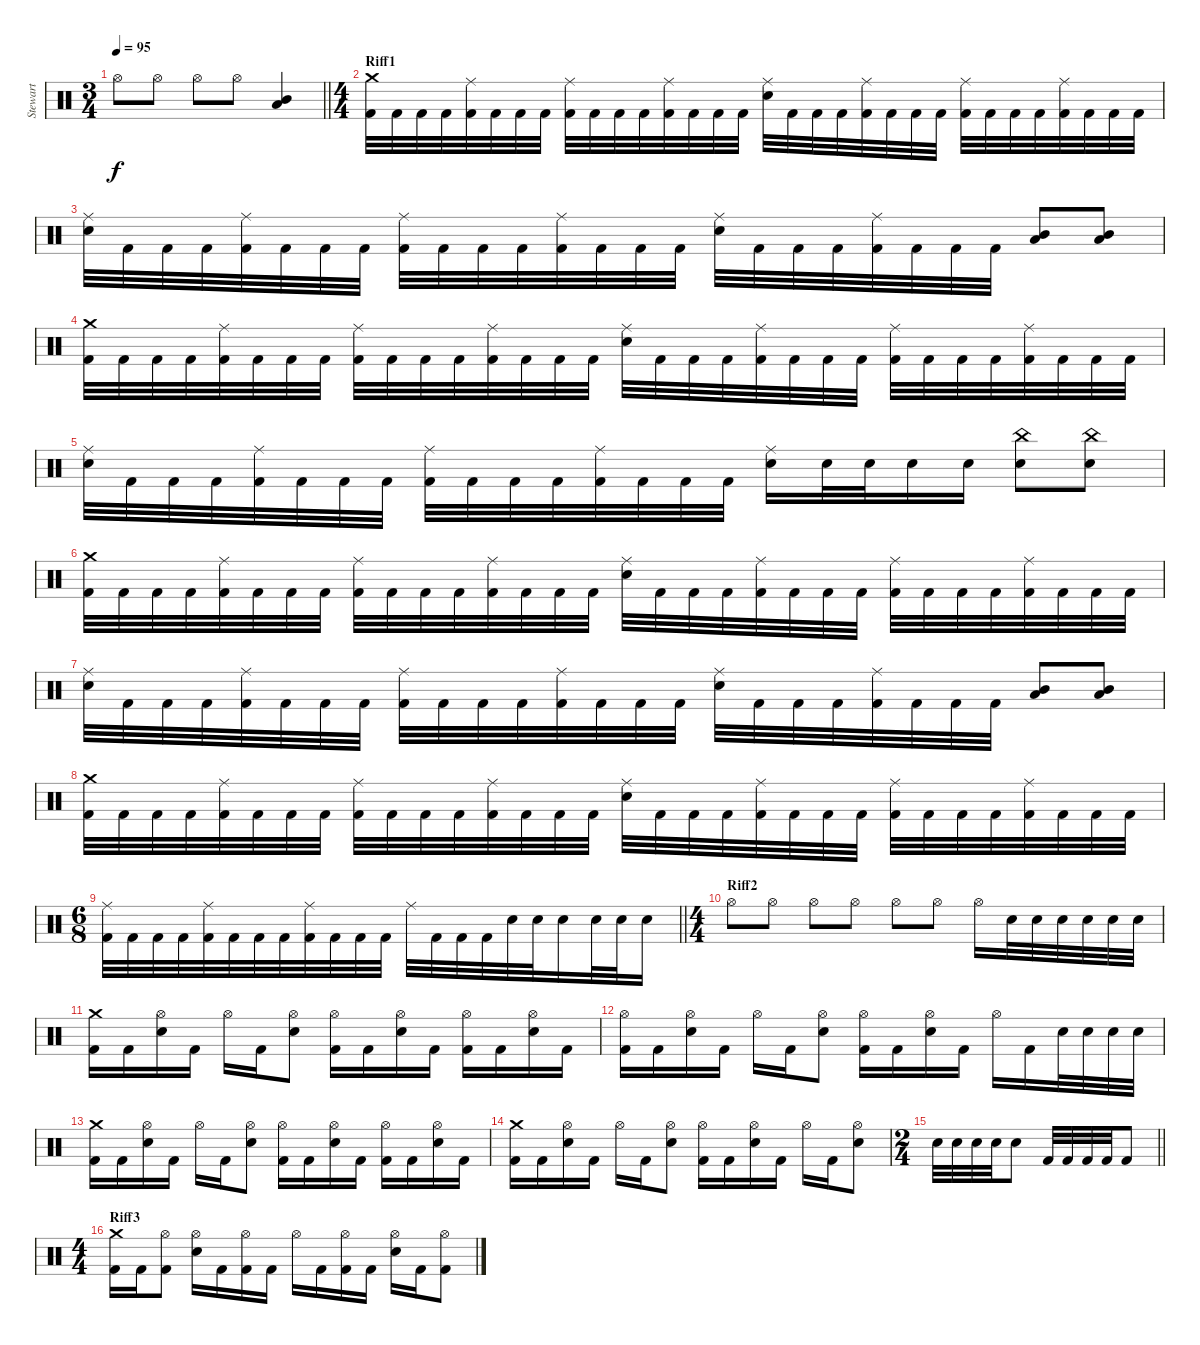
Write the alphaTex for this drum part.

\track ("Stewart" "Stewart") {instrument percussion}
\staff {score}
\articulation defaults
\ts (3 4)
\tempo 95
\clef neutral
\barLineRight lightlight
\ks c "Hi-Hat (open)".8{dy f} "Hi-Hat (open)".8 "Hi-Hat (open)".8 "Hi-Hat (open)".8
("Mid Tom (hit)" "Low Tom (hit)").4 |
\ts (4 4)
\section ("" "Riff1")
("Crash medium (hit)" "Kick (hit) 2").32 "Kick (hit) 2".32 "Kick (hit) 2".32 "Kick (hit) 2".32 ("Ride (middle)" "Kick (hit) 2").32 "Kick (hit) 2".32 "Kick (hit) 2".32 "Kick (hit) 2".32 ("Ride (middle)" "Kick (hit) 2").32 "Kick (hit) 2".32 "Kick (hit) 2".32 "Kick (hit) 2".32 ("Ride (middle)" "Kick (hit) 2").32 "Kick (hit) 2".32 "Kick (hit) 2".32 "Kick (hit) 2".32 ("Ride (middle)" "Electric Snare (hit)").32 "Kick (hit) 2".32 "Kick (hit) 2".32 "Kick (hit) 2".32 ("Ride (middle)" "Kick (hit) 2").32 "Kick (hit) 2".32 "Kick (hit) 2".32 "Kick (hit) 2".32 ("Ride (middle)" "Kick (hit) 2").32 "Kick (hit) 2".32 "Kick (hit) 2".32 "Kick (hit) 2".32 ("Ride (middle)" "Kick (hit) 2").32 "Kick (hit) 2".32 "Kick (hit) 2".32 "Kick (hit) 2".32 |
("Ride (middle)" "Electric Snare (hit)").32 "Kick (hit) 2".32 "Kick (hit) 2".32 "Kick (hit) 2".32 ("Ride (middle)" "Kick (hit) 2").32 "Kick (hit) 2".32 "Kick (hit) 2".32 "Kick (hit) 2".32 ("Ride (middle)" "Kick (hit) 2").32 "Kick (hit) 2".32 "Kick (hit) 2".32 "Kick (hit) 2".32 ("Ride (middle)" "Kick (hit) 2").32 "Kick (hit) 2".32 "Kick (hit) 2".32 "Kick (hit) 2".32 ("Ride (middle)" "Electric Snare (hit)").32 "Kick (hit) 2".32 "Kick (hit) 2".32 "Kick (hit) 2".32 ("Ride (middle)" "Kick (hit) 2").32 "Kick (hit) 2".32 "Kick (hit) 2".32 "Kick (hit) 2".32 ("Mid Tom (hit)" "Low Tom (hit)").8 ("Mid Tom (hit)" "Low Tom (hit)").8 |
("Crash medium (hit)" "Kick (hit) 2").32 "Kick (hit) 2".32 "Kick (hit) 2".32 "Kick (hit) 2".32 ("Ride (middle)" "Kick (hit) 2").32 "Kick (hit) 2".32 "Kick (hit) 2".32 "Kick (hit) 2".32 ("Ride (middle)" "Kick (hit) 2").32 "Kick (hit) 2".32 "Kick (hit) 2".32 "Kick (hit) 2".32 ("Ride (middle)" "Kick (hit) 2").32 "Kick (hit) 2".32 "Kick (hit) 2".32 "Kick (hit) 2".32 ("Ride (middle)" "Electric Snare (hit)").32 "Kick (hit) 2".32 "Kick (hit) 2".32 "Kick (hit) 2".32 ("Ride (middle)" "Kick (hit) 2").32 "Kick (hit) 2".32 "Kick (hit) 2".32 "Kick (hit) 2".32 ("Ride (middle)" "Kick (hit) 2").32 "Kick (hit) 2".32 "Kick (hit) 2".32 "Kick (hit) 2".32 ("Ride (middle)" "Kick (hit) 2").32 "Kick (hit) 2".32 "Kick (hit) 2".32 "Kick (hit) 2".32 |
("Ride (middle)" "Electric Snare (hit)").32 "Kick (hit) 2".32 "Kick (hit) 2".32 "Kick (hit) 2".32 ("Ride (middle)" "Kick (hit) 2").32 "Kick (hit) 2".32 "Kick (hit) 2".32 "Kick (hit) 2".32 ("Ride (middle)" "Kick (hit) 2").32 "Kick (hit) 2".32 "Kick (hit) 2".32 "Kick (hit) 2".32 ("Ride (middle)" "Kick (hit) 2").32 "Kick (hit) 2".32 "Kick (hit) 2".32 "Kick (hit) 2".32 ("Ride (middle)" "Electric Snare (hit)").16 "Electric Snare (hit)".32 "Electric Snare (hit)".32 "Electric Snare (hit)".16 "Electric Snare (hit)".16 ("China (hit)" "Electric Snare (hit)").8 ("China (hit)" "Electric Snare (hit)").8 |
("Crash medium (hit)" "Kick (hit) 2").32 "Kick (hit) 2".32 "Kick (hit) 2".32 "Kick (hit) 2".32 ("Ride (middle)" "Kick (hit) 2").32 "Kick (hit) 2".32 "Kick (hit) 2".32 "Kick (hit) 2".32 ("Ride (middle)" "Kick (hit) 2").32 "Kick (hit) 2".32 "Kick (hit) 2".32 "Kick (hit) 2".32 ("Ride (middle)" "Kick (hit) 2").32 "Kick (hit) 2".32 "Kick (hit) 2".32 "Kick (hit) 2".32 ("Ride (middle)" "Electric Snare (hit)").32 "Kick (hit) 2".32 "Kick (hit) 2".32 "Kick (hit) 2".32 ("Ride (middle)" "Kick (hit) 2").32 "Kick (hit) 2".32 "Kick (hit) 2".32 "Kick (hit) 2".32 ("Ride (middle)" "Kick (hit) 2").32 "Kick (hit) 2".32 "Kick (hit) 2".32 "Kick (hit) 2".32 ("Ride (middle)" "Kick (hit) 2").32 "Kick (hit) 2".32 "Kick (hit) 2".32 "Kick (hit) 2".32 |
("Ride (middle)" "Electric Snare (hit)").32 "Kick (hit) 2".32 "Kick (hit) 2".32 "Kick (hit) 2".32 ("Ride (middle)" "Kick (hit) 2").32 "Kick (hit) 2".32 "Kick (hit) 2".32 "Kick (hit) 2".32 ("Ride (middle)" "Kick (hit) 2").32 "Kick (hit) 2".32 "Kick (hit) 2".32 "Kick (hit) 2".32 ("Ride (middle)" "Kick (hit) 2").32 "Kick (hit) 2".32 "Kick (hit) 2".32 "Kick (hit) 2".32 ("Ride (middle)" "Electric Snare (hit)").32 "Kick (hit) 2".32 "Kick (hit) 2".32 "Kick (hit) 2".32 ("Ride (middle)" "Kick (hit) 2").32 "Kick (hit) 2".32 "Kick (hit) 2".32 "Kick (hit) 2".32 ("Mid Tom (hit)" "Low Tom (hit)").8 ("Mid Tom (hit)" "Low Tom (hit)").8 |
("Crash medium (hit)" "Kick (hit) 2").32 "Kick (hit) 2".32 "Kick (hit) 2".32 "Kick (hit) 2".32 ("Ride (middle)" "Kick (hit) 2").32 "Kick (hit) 2".32 "Kick (hit) 2".32 "Kick (hit) 2".32 ("Ride (middle)" "Kick (hit) 2").32 "Kick (hit) 2".32 "Kick (hit) 2".32 "Kick (hit) 2".32 ("Ride (middle)" "Kick (hit) 2").32 "Kick (hit) 2".32 "Kick (hit) 2".32 "Kick (hit) 2".32 ("Ride (middle)" "Electric Snare (hit)").32 "Kick (hit) 2".32 "Kick (hit) 2".32 "Kick (hit) 2".32 ("Ride (middle)" "Kick (hit) 2").32 "Kick (hit) 2".32 "Kick (hit) 2".32 "Kick (hit) 2".32 ("Ride (middle)" "Kick (hit) 2").32 "Kick (hit) 2".32 "Kick (hit) 2".32 "Kick (hit) 2".32 ("Ride (middle)" "Kick (hit) 2").32 "Kick (hit) 2".32 "Kick (hit) 2".32 "Kick (hit) 2".32 |
\ts (6 8)
\barLineRight lightlight
("Ride (middle)" "Kick (hit) 2").32 "Kick (hit) 2".32 "Kick (hit) 2".32 "Kick (hit) 2".32 ("Ride (middle)" "Kick (hit) 2").32 "Kick (hit) 2".32 "Kick (hit) 2".32 "Kick (hit) 2".32 ("Ride (middle)" "Kick (hit) 2").32 "Kick (hit) 2".32 "Kick (hit) 2".32 "Kick (hit) 2".32 "Ride (middle)".32 "Kick (hit) 2".32 "Kick (hit) 2".32 "Kick (hit) 2".32 "Electric Snare (hit)".32 "Electric Snare (hit)".32 "Electric Snare (hit)".16 "Electric Snare (hit)".32 "Electric Snare (hit)".32 "Electric Snare (hit)".16 |
\ts (4 4)
\section ("" "Riff2")
"Hi-Hat (open)".8 "Hi-Hat (open)".8 "Hi-Hat (open)".8 "Hi-Hat (open)".8 "Hi-Hat (open)".8 "Hi-Hat (open)".8 "Hi-Hat (open)".16 "Electric Snare (hit)".32 "Electric Snare (hit)".32 "Electric Snare (hit)".32 "Electric Snare (hit)".32 "Electric Snare (hit)".32 "Electric Snare (hit)".32 |
("Crash medium (hit)" "Kick (hit) 2").16 "Kick (hit) 2".16 ("Hi-Hat (open)" "Electric Snare (hit)").16 "Kick (hit) 2".16 "Hi-Hat (open)".16 "Kick (hit) 2".16 ("Hi-Hat (open)" "Electric Snare (hit)").8 ("Hi-Hat (open)" "Kick (hit) 2").16 "Kick (hit) 2".16 ("Hi-Hat (open)" "Electric Snare (hit)").16 "Kick (hit) 2".16 ("Hi-Hat (open)" "Kick (hit) 2").16 "Kick (hit) 2".16 ("Hi-Hat (open)" "Electric Snare (hit)").16 "Kick (hit) 2".16 |
("Hi-Hat (open)" "Kick (hit) 2").16 "Kick (hit) 2".16 ("Hi-Hat (open)" "Electric Snare (hit)").16 "Kick (hit) 2".16 "Hi-Hat (open)".16 "Kick (hit) 2".16 ("Hi-Hat (open)" "Electric Snare (hit)").8 ("Hi-Hat (open)" "Kick (hit) 2").16 "Kick (hit) 2".16 ("Hi-Hat (open)" "Electric Snare (hit)").16 "Kick (hit) 2".16 "Hi-Hat (open)".16 "Kick (hit) 2".16 "Electric Snare (hit)".32 "Electric Snare (hit)".32 "Electric Snare (hit)".32 "Electric Snare (hit)".32 |
("Crash medium (hit)" "Kick (hit) 2").16 "Kick (hit) 2".16 ("Hi-Hat (open)" "Electric Snare (hit)").16 "Kick (hit) 2".16 "Hi-Hat (open)".16 "Kick (hit) 2".16 ("Hi-Hat (open)" "Electric Snare (hit)").8 ("Hi-Hat (open)" "Kick (hit) 2").16 "Kick (hit) 2".16 ("Hi-Hat (open)" "Electric Snare (hit)").16 "Kick (hit) 2".16 ("Hi-Hat (open)" "Kick (hit) 2").16 "Kick (hit) 2".16 ("Hi-Hat (open)" "Electric Snare (hit)").16 "Kick (hit) 2".16 |
("Crash medium (hit)" "Kick (hit) 2").16 "Kick (hit) 2".16 ("Hi-Hat (open)" "Electric Snare (hit)").16 "Kick (hit) 2".16 "Hi-Hat (open)".16 "Kick (hit) 2".16 ("Hi-Hat (open)" "Electric Snare (hit)").8 ("Hi-Hat (open)" "Kick (hit) 2").16 "Kick (hit) 2".16 ("Hi-Hat (open)" "Electric Snare (hit)").16 "Kick (hit) 2".16 "Hi-Hat (open)".16 "Kick (hit) 2".16 ("Hi-Hat (open)" "Electric Snare (hit)").8 |
\ts (2 4)
\barLineRight lightlight "Electric Snare (hit)".32 "Electric Snare (hit)".32 "Electric Snare (hit)".32 "Electric Snare (hit)".32 "Electric Snare (hit)".8 "Kick (hit) 2".32 "Kick (hit) 2".32 "Kick (hit) 2".32 "Kick (hit) 2".32 "Kick (hit) 2".8
|
\ts (4 4)
\section ("" "Riff3")
("Crash medium (hit)" "Kick (hit) 2").16 "Kick (hit) 2".16 ("Hi-Hat (open)" "Kick (hit) 2").8 ("Hi-Hat (open)" "Electric Snare (hit)").16 "Kick (hit) 2".16 ("Hi-Hat (open)" "Kick (hit) 2").16 "Kick (hit) 2".16 "Hi-Hat (open)".16 "Kick (hit) 2".16 ("Hi-Hat (open)" "Kick (hit) 2").16 "Kick (hit) 2".16 ("Hi-Hat (open)" "Electric Snare (hit)").16 "Kick (hit) 2".16 ("Hi-Hat (open)" "Kick (hit) 2").8
